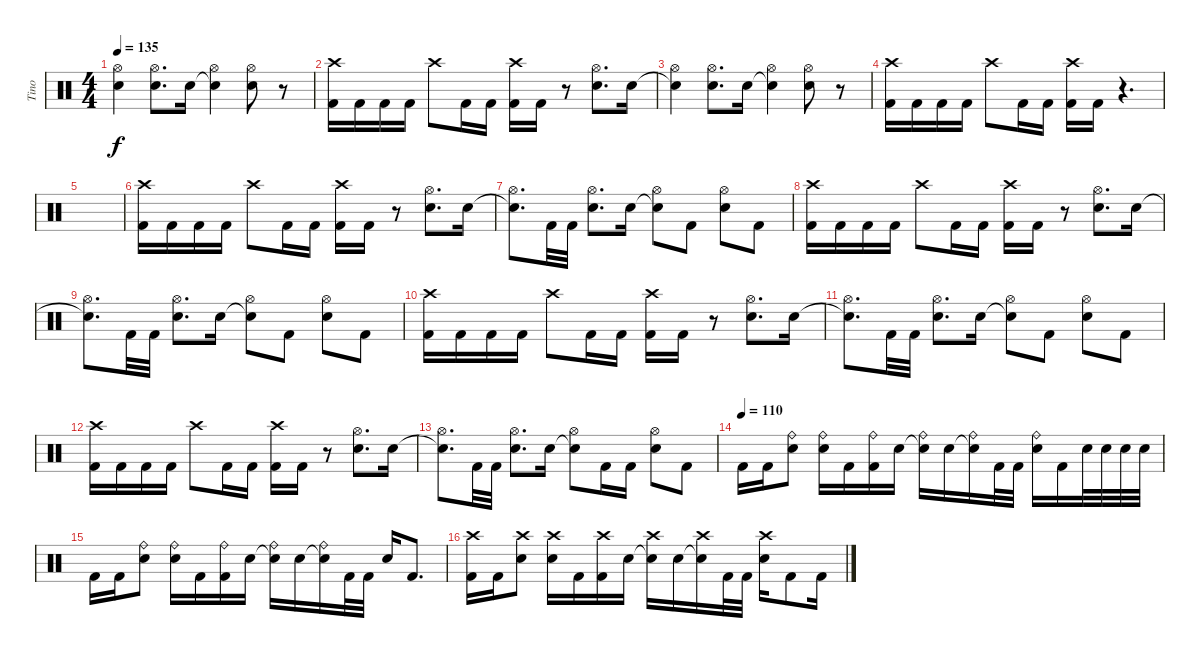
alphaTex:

\track ("Tino" "Tino") {instrument percussion}
\staff {score}
\articulation defaults
\ts (4 4)
\tempo 135
\clef neutral
\ks c
("Electric Snare (hit)"{t} "Hi-Hat (open)").4{dy f} ("Electric Snare (hit)" "Hi-Hat (open)").8{d} "Electric Snare (hit)".16 ("Electric Snare (hit)"{t} "Hi-Hat (open)").4 ("Electric Snare (hit)" "Hi-Hat (open)").8 r.8 |
("Kick (hit) 2" "Crash high (hit)").16 "Kick (hit) 2".16 "Kick (hit) 2".16 "Kick (hit) 2".16 "Crash high (hit)".8 "Kick (hit) 2".16 "Kick (hit) 2".16 ("Kick (hit) 2" "Crash high (hit)").16 "Kick (hit) 2".16 r.8 ("Electric Snare (hit)" "Hi-Hat (open)").8{d} "Electric Snare (hit)".16 |
("Electric Snare (hit)"{t} "Hi-Hat (open)").4 ("Electric Snare (hit)" "Hi-Hat (open)").8{d} "Electric Snare (hit)".16 ("Electric Snare (hit)"{t} "Hi-Hat (open)").4 ("Electric Snare (hit)" "Hi-Hat (open)").8 r.8 |
("Kick (hit) 2" "Crash high (hit)").16 "Kick (hit) 2".16 "Kick (hit) 2".16 "Kick (hit) 2".16 "Crash high (hit)".8 "Kick (hit) 2".16 "Kick (hit) 2".16 ("Kick (hit) 2" "Crash high (hit)").16 "Kick (hit) 2".16 r.4{d} |
|
("Kick (hit) 2" "Crash high (hit)").16 "Kick (hit) 2".16 "Kick (hit) 2".16 "Kick (hit) 2".16 "Crash high (hit)".8 "Kick (hit) 2".16 "Kick (hit) 2".16 ("Kick (hit) 2" "Crash high (hit)").16 "Kick (hit) 2".16 r.8 ("Electric Snare (hit)" "Hi-Hat (open)").8{d} "Electric Snare (hit)".16 |
("Electric Snare (hit)"{t} "Hi-Hat (open)").8{d} "Kick (hit) 2".32 "Kick (hit) 2".32 ("Electric Snare (hit)" "Hi-Hat (open)").8{d} "Electric Snare (hit)".16 ("Electric Snare (hit)"{t} "Hi-Hat (open)").8 "Kick (hit) 2".8 ("Electric Snare (hit)" "Hi-Hat (open)").8 "Kick (hit) 2".8 |
("Kick (hit) 2" "Crash high (hit)").16 "Kick (hit) 2".16 "Kick (hit) 2".16 "Kick (hit) 2".16 "Crash high (hit)".8 "Kick (hit) 2".16 "Kick (hit) 2".16 ("Kick (hit) 2" "Crash high (hit)").16 "Kick (hit) 2".16 r.8 ("Electric Snare (hit)" "Hi-Hat (open)").8{d} "Electric Snare (hit)".16 |
("Electric Snare (hit)"{t} "Hi-Hat (open)").8{d} "Kick (hit) 2".32 "Kick (hit) 2".32 ("Electric Snare (hit)" "Hi-Hat (open)").8{d} "Electric Snare (hit)".16 ("Electric Snare (hit)"{t} "Hi-Hat (open)").8 "Kick (hit) 2".8 ("Electric Snare (hit)" "Hi-Hat (open)").8 "Kick (hit) 2".8 |
("Kick (hit) 2" "Crash high (hit)").16 "Kick (hit) 2".16 "Kick (hit) 2".16 "Kick (hit) 2".16 "Crash high (hit)".8 "Kick (hit) 2".16 "Kick (hit) 2".16 ("Kick (hit) 2" "Crash high (hit)").16 "Kick (hit) 2".16 r.8 ("Electric Snare (hit)" "Hi-Hat (open)").8{d} "Electric Snare (hit)".16 |
("Electric Snare (hit)"{t} "Hi-Hat (open)").8{d} "Kick (hit) 2".32 "Kick (hit) 2".32 ("Electric Snare (hit)" "Hi-Hat (open)").8{d} "Electric Snare (hit)".16 ("Electric Snare (hit)"{t} "Hi-Hat (open)").8 "Kick (hit) 2".8 ("Electric Snare (hit)" "Hi-Hat (open)").8 "Kick (hit) 2".8 |
("Kick (hit) 2" "Crash high (hit)").16 "Kick (hit) 2".16 "Kick (hit) 2".16 "Kick (hit) 2".16 "Crash high (hit)".8 "Kick (hit) 2".16 "Kick (hit) 2".16 ("Kick (hit) 2" "Crash high (hit)").16 "Kick (hit) 2".16 r.8 ("Electric Snare (hit)" "Hi-Hat (open)").8{d} "Electric Snare (hit)".16 |
("Electric Snare (hit)"{t} "Hi-Hat (open)").8{d} "Kick (hit) 2".32 "Kick (hit) 2".32 ("Electric Snare (hit)" "Hi-Hat (open)").8{d} "Electric Snare (hit)".16 ("Electric Snare (hit)"{t} "Hi-Hat (open)").8 "Kick (hit) 2".16 "Kick (hit) 2".16 ("Electric Snare (hit)" "Hi-Hat (open)").8 "Kick (hit) 2".8 |
\tempo (110)
"Kick (hit) 2".16 "Kick (hit) 2".16 ("Electric Snare (hit)" "Ride (bell)").8 ("Electric Snare (hit)" "Ride (bell)").16 "Kick (hit) 2".16 ("Kick (hit) 2" "Ride (bell)").16 "Electric Snare (hit)".16 ("Electric Snare (hit)"{t} "Ride (bell)").16 "Electric Snare (hit)".16 ("Electric Snare (hit)"{t} "Ride (bell)").16 "Kick (hit) 2".32 "Kick (hit) 2".32 ("Electric Snare (hit)" "Ride (bell)").16 "Kick (hit) 2".16 "Electric Snare (hit)".32 "Electric Snare (hit)".32 "Electric Snare (hit)".32 "Electric Snare (hit)".32 |
"Kick (hit) 2".16 "Kick (hit) 2".16 ("Electric Snare (hit)" "Ride (bell)").8 ("Electric Snare (hit)" "Ride (bell)").16 "Kick (hit) 2".16 ("Kick (hit) 2" "Ride (bell)").16 "Electric Snare (hit)".16 ("Electric Snare (hit)"{t} "Ride (bell)").16 "Electric Snare (hit)".16 ("Electric Snare (hit)"{t} "Ride (bell)").16 "Kick (hit) 2".32 "Kick (hit) 2".32 "Electric Snare (hit)".16 "Kick (hit) 2".8{d} |
("Kick (hit) 2" "Crash high (hit)").16 "Kick (hit) 2".16 ("Electric Snare (hit)" "Crash high (hit)").8 ("Electric Snare (hit)" "Crash high (hit)").16 "Kick (hit) 2".16 ("Kick (hit) 2" "Crash high (hit)").16 "Electric Snare (hit)".16 ("Electric Snare (hit)"{t} "Crash high (hit)").16 "Electric Snare (hit)".16 ("Electric Snare (hit)"{t} "Crash high (hit)").16 "Kick (hit) 2".32 "Kick (hit) 2".32 ("Electric Snare (hit)" "Crash high (hit)").16 "Kick (hit) 2".8 "Kick (hit) 2".16
